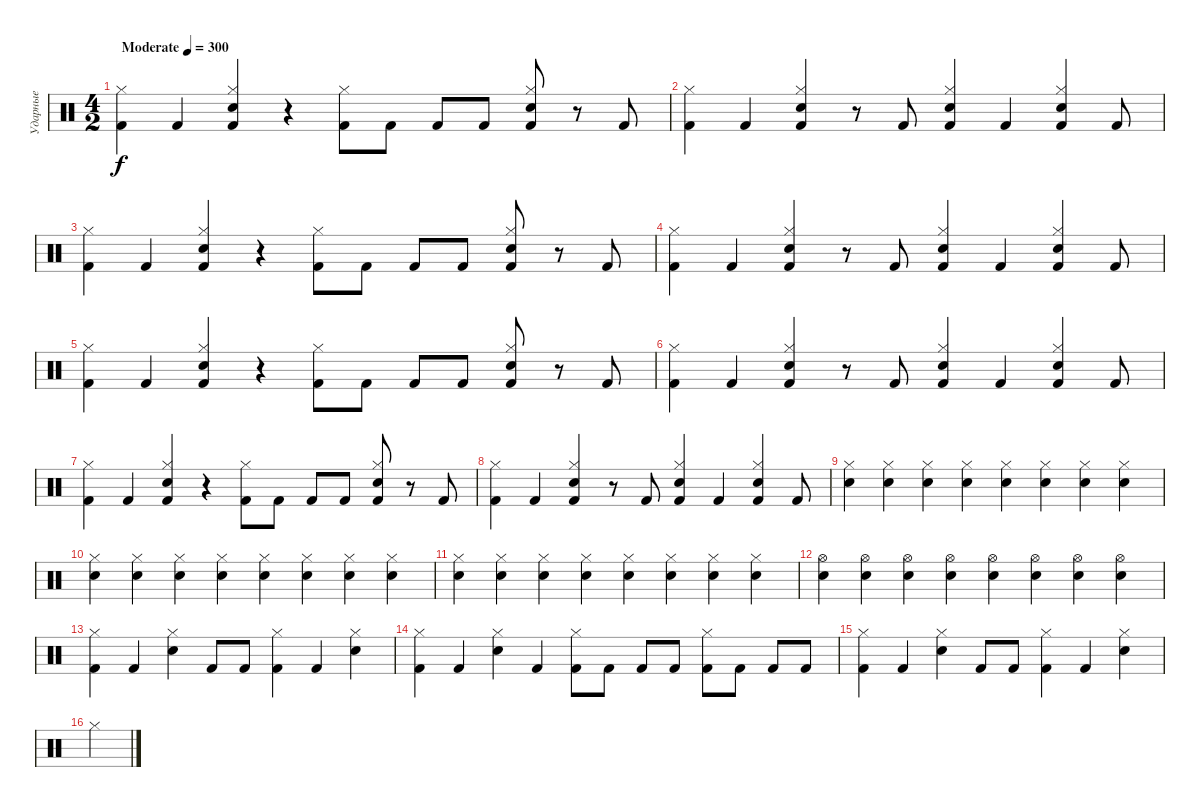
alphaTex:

\track ("Ударные" "Ударные") {instrument percussion}
\staff {score}
\articulation defaults
\ts (4 2)
\tempo (300 "Moderate")
\clef neutral
\ks c
("Kick (hit) 2" "Hi-Hat (closed)").4{dy f} "Kick (hit) 2".4 ("Kick (hit) 2" "Hi-Hat (closed)" "Snare (hit) 2").4 r.4 ("Kick (hit) 2" "Hi-Hat (closed)").8 "Kick (hit) 2".8 "Kick (hit) 2".8 "Kick (hit) 2".8 ("Kick (hit) 2" "Hi-Hat (closed)" "Snare (hit) 2").8 r.8 "Kick (hit) 2".8 |
("Kick (hit) 2" "Hi-Hat (closed)").4 "Kick (hit) 2".4 ("Kick (hit) 2" "Hi-Hat (closed)" "Snare (hit) 2").4 r.8 "Kick (hit) 2".8 ("Kick (hit) 2" "Hi-Hat (closed)" "Snare (hit) 2").4 "Kick (hit) 2".4 ("Kick (hit) 2" "Hi-Hat (closed)" "Snare (hit) 2").4 "Kick (hit) 2".8 |
("Kick (hit) 2" "Hi-Hat (closed)").4 "Kick (hit) 2".4 ("Kick (hit) 2" "Hi-Hat (closed)" "Snare (hit) 2").4 r.4 ("Kick (hit) 2" "Hi-Hat (closed)").8 "Kick (hit) 2".8 "Kick (hit) 2".8 "Kick (hit) 2".8 ("Kick (hit) 2" "Hi-Hat (closed)" "Snare (hit) 2").8 r.8 "Kick (hit) 2".8 |
("Kick (hit) 2" "Hi-Hat (closed)").4 "Kick (hit) 2".4 ("Kick (hit) 2" "Hi-Hat (closed)" "Snare (hit) 2").4 r.8 "Kick (hit) 2".8 ("Kick (hit) 2" "Hi-Hat (closed)" "Snare (hit) 2").4 "Kick (hit) 2".4 ("Kick (hit) 2" "Hi-Hat (closed)" "Snare (hit) 2").4 "Kick (hit) 2".8 |
("Kick (hit) 2" "Hi-Hat (closed)").4 "Kick (hit) 2".4 ("Kick (hit) 2" "Hi-Hat (closed)" "Snare (hit) 2").4 r.4 ("Kick (hit) 2" "Hi-Hat (closed)").8 "Kick (hit) 2".8 "Kick (hit) 2".8 "Kick (hit) 2".8 ("Kick (hit) 2" "Hi-Hat (closed)" "Snare (hit) 2").8 r.8 "Kick (hit) 2".8 |
("Kick (hit) 2" "Hi-Hat (closed)").4 "Kick (hit) 2".4 ("Kick (hit) 2" "Hi-Hat (closed)" "Snare (hit) 2").4 r.8 "Kick (hit) 2".8 ("Kick (hit) 2" "Hi-Hat (closed)" "Snare (hit) 2").4 "Kick (hit) 2".4 ("Kick (hit) 2" "Hi-Hat (closed)" "Snare (hit) 2").4 "Kick (hit) 2".8 |
("Kick (hit) 2" "Hi-Hat (closed)").4 "Kick (hit) 2".4 ("Kick (hit) 2" "Hi-Hat (closed)" "Snare (hit) 2").4 r.4 ("Kick (hit) 2" "Hi-Hat (closed)").8 "Kick (hit) 2".8 "Kick (hit) 2".8 "Kick (hit) 2".8 ("Kick (hit) 2" "Hi-Hat (closed)" "Snare (hit) 2").8 r.8 "Kick (hit) 2".8 |
("Kick (hit) 2" "Hi-Hat (closed)").4 "Kick (hit) 2".4 ("Kick (hit) 2" "Hi-Hat (closed)" "Snare (hit) 2").4 r.8 "Kick (hit) 2".8 ("Kick (hit) 2" "Hi-Hat (closed)" "Snare (hit) 2").4 "Kick (hit) 2".4 ("Kick (hit) 2" "Hi-Hat (closed)" "Snare (hit) 2").4 "Kick (hit) 2".8 |
("Hi-Hat (closed)" "Snare (hit) 2").4 ("Hi-Hat (closed)" "Snare (hit) 2").4 ("Hi-Hat (closed)" "Snare (hit) 2").4 ("Hi-Hat (closed)" "Snare (hit) 2").4 ("Hi-Hat (closed)" "Snare (hit) 2").4 ("Hi-Hat (closed)" "Snare (hit) 2").4 ("Hi-Hat (closed)" "Snare (hit) 2").4 ("Hi-Hat (closed)" "Snare (hit) 2").4 |
("Hi-Hat (closed)" "Snare (hit) 2").4 ("Hi-Hat (closed)" "Snare (hit) 2").4 ("Hi-Hat (closed)" "Snare (hit) 2").4 ("Hi-Hat (closed)" "Snare (hit) 2").4 ("Hi-Hat (closed)" "Snare (hit) 2").4 ("Hi-Hat (closed)" "Snare (hit) 2").4 ("Hi-Hat (closed)" "Snare (hit) 2").4 ("Hi-Hat (closed)" "Snare (hit) 2").4 |
("Hi-Hat (closed)" "Snare (hit) 2").4 ("Hi-Hat (closed)" "Snare (hit) 2").4 ("Hi-Hat (closed)" "Snare (hit) 2").4 ("Hi-Hat (closed)" "Snare (hit) 2").4 ("Hi-Hat (closed)" "Snare (hit) 2").4 ("Hi-Hat (closed)" "Snare (hit) 2").4 ("Hi-Hat (closed)" "Snare (hit) 2").4 ("Hi-Hat (closed)" "Snare (hit) 2").4 |
("Hi-Hat (open)" "Snare (hit) 2").4 ("Hi-Hat (open)" "Snare (hit) 2").4 ("Hi-Hat (open)" "Snare (hit) 2").4 ("Hi-Hat (open)" "Snare (hit) 2").4 ("Hi-Hat (open)" "Snare (hit) 2").4 ("Hi-Hat (open)" "Snare (hit) 2").4 ("Hi-Hat (open)" "Snare (hit) 2").4 ("Hi-Hat (open)" "Snare (hit) 2").4 |
("Kick (hit) 2" "Hi-Hat (closed)").4 "Kick (hit) 2".4 ("Hi-Hat (closed)" "Snare (hit) 2").4 "Kick (hit) 2".8 "Kick (hit) 2".8 ("Kick (hit) 2" "Hi-Hat (closed)").4 "Kick (hit) 2".4 ("Hi-Hat (closed)" "Snare (hit) 2").4 |
("Kick (hit) 2" "Hi-Hat (closed)").4 "Kick (hit) 2".4 ("Hi-Hat (closed)" "Snare (hit) 2").4 "Kick (hit) 2".4 ("Kick (hit) 2" "Hi-Hat (closed)").8 "Kick (hit) 2".8 "Kick (hit) 2".8 "Kick (hit) 2".8 ("Kick (hit) 2" "Hi-Hat (closed)").8 "Kick (hit) 2".8 "Kick (hit) 2".8 "Kick (hit) 2".8 |
("Kick (hit) 2" "Hi-Hat (closed)").4 "Kick (hit) 2".4 ("Hi-Hat (closed)" "Snare (hit) 2").4 "Kick (hit) 2".8 "Kick (hit) 2".8 ("Kick (hit) 2" "Hi-Hat (closed)").4 "Kick (hit) 2".4 ("Hi-Hat (closed)" "Snare (hit) 2").4 |
"Hi-Hat (closed)".4
